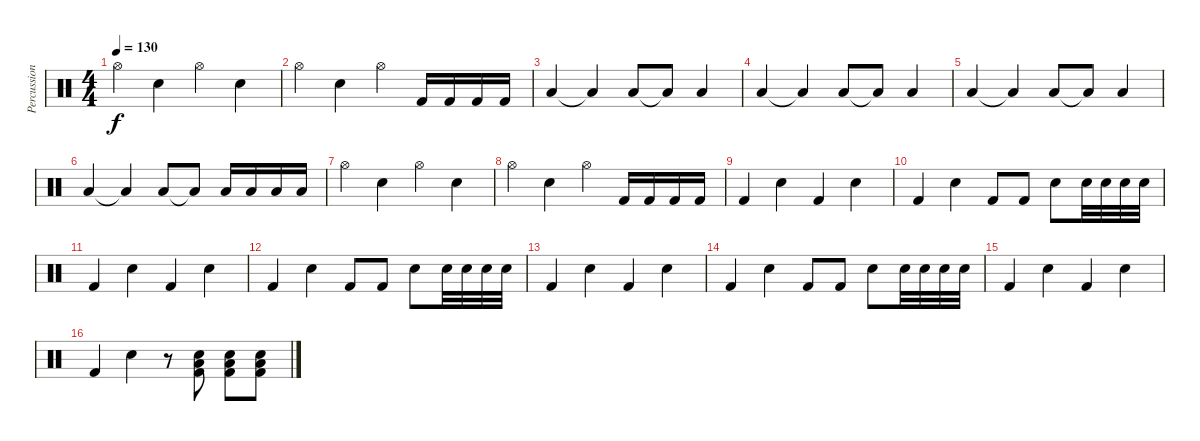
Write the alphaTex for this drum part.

\track ("Percussioni" "Percussion") {instrument percussion}
\staff {score}
\articulation defaults
\ts (4 4)
\tempo 130
\clef neutral
\ks c "Hi-Hat (open)".4{dy f} "Snare (hit) 2".4 "Hi-Hat (open)".4 "Snare (hit) 2".4
|
"Hi-Hat (open)".4 "Snare (hit) 2".4 "Hi-Hat (open)".4 "Kick (hit) 2".16 "Kick (hit) 2".16 "Kick (hit) 2".16 "Kick (hit) 2".16 |
"Low Floor Tom (hit)".4 "Low Floor Tom (hit)"{t}.4 "Low Floor Tom (hit)".8 "Low Floor Tom (hit)"{t}.8 "Low Floor Tom (hit)".4 |
"Low Floor Tom (hit)".4 "Low Floor Tom (hit)"{t}.4 "Low Floor Tom (hit)".8 "Low Floor Tom (hit)"{t}.8 "Low Floor Tom (hit)".4 |
"Low Floor Tom (hit)".4 "Low Floor Tom (hit)"{t}.4 "Low Floor Tom (hit)".8 "Low Floor Tom (hit)"{t}.8 "Low Floor Tom (hit)".4 |
"Low Floor Tom (hit)".4 "Low Floor Tom (hit)"{t}.4 "Low Floor Tom (hit)".8 "Low Floor Tom (hit)"{t}.8 "Low Tom (hit)".16 "Low Tom (hit)".16 "Low Tom (hit)".16 "Low Tom (hit)".16 |
"Hi-Hat (open)".4 "Snare (hit) 2".4 "Hi-Hat (open)".4 "Snare (hit) 2".4 |
"Hi-Hat (open)".4 "Snare (hit) 2".4 "Hi-Hat (open)".4 "Kick (hit) 2".16 "Kick (hit) 2".16 "Kick (hit) 2".16 "Kick (hit) 2".16 |
"Kick (hit) 2".4 "Snare (hit) 2".4 "Kick (hit) 2".4 "Snare (hit) 2".4 |
"Kick (hit) 2".4 "Snare (hit) 2".4 "Kick (hit) 2".8 "Kick (hit) 2".8 "Snare (hit) 2".8 "Snare (hit) 2".32 "Snare (hit) 2".32 "Snare (hit) 2".32 "Snare (hit) 2".32 |
"Kick (hit) 2".4 "Snare (hit) 2".4 "Kick (hit) 2".4 "Snare (hit) 2".4 |
"Kick (hit) 2".4 "Snare (hit) 2".4 "Kick (hit) 2".8 "Kick (hit) 2".8 "Snare (hit) 2".8 "Snare (hit) 2".32 "Snare (hit) 2".32 "Snare (hit) 2".32 "Snare (hit) 2".32 |
"Kick (hit) 2".4 "Snare (hit) 2".4 "Kick (hit) 2".4 "Snare (hit) 2".4 |
"Kick (hit) 2".4 "Snare (hit) 2".4 "Kick (hit) 2".8 "Kick (hit) 2".8 "Snare (hit) 2".8 "Snare (hit) 2".32 "Snare (hit) 2".32 "Snare (hit) 2".32 "Snare (hit) 2".32 |
"Kick (hit) 2".4 "Snare (hit) 2".4 "Kick (hit) 2".4 "Snare (hit) 2".4 |
"Kick (hit) 2".4 "Snare (hit) 2".4 r.8 ("Snare (hit) 2" "Kick (hit) 2" "Low Tom (hit)").8 ("Snare (hit) 2" "Kick (hit) 2" "Low Tom (hit)").8 ("Snare (hit) 2" "Kick (hit) 2" "Low Tom (hit)").8
